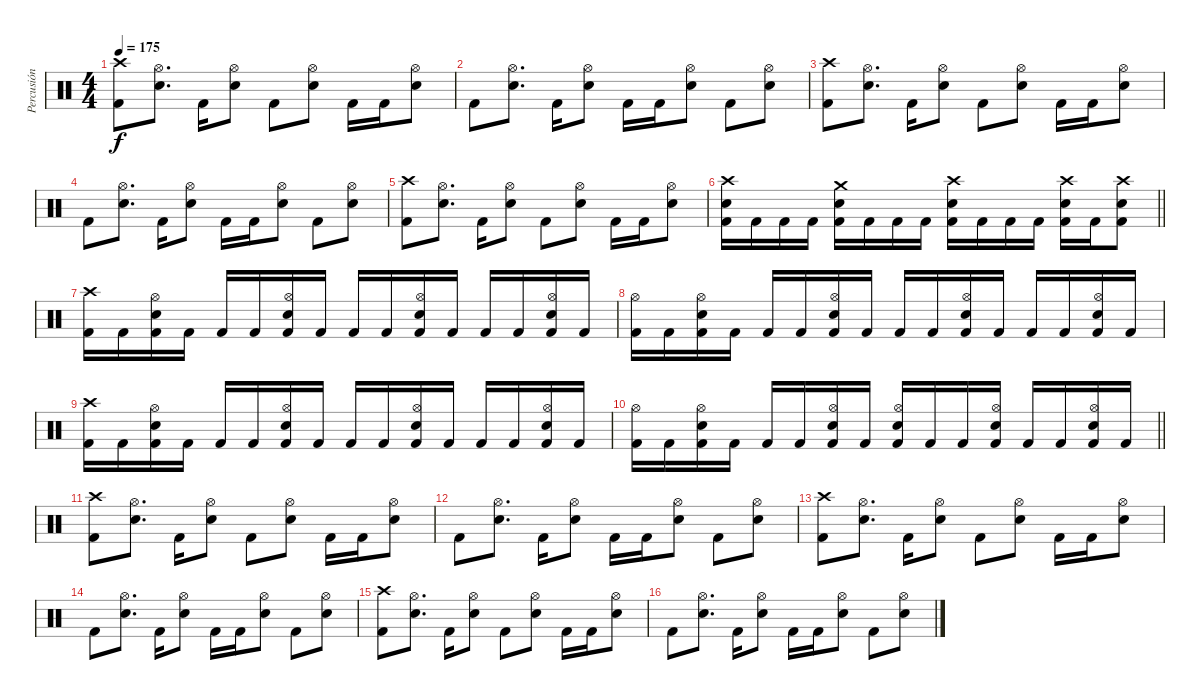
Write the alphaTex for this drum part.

\track ("Percusión" "Percusión") {instrument percussion}
\staff {score}
\articulation defaults
\ts (4 4)
\tempo 175
\clef neutral
\ks c
("Crash high (hit)" "Kick (hit) 2").8{dy f} ("Hi-Hat (open)" "Electric Snare (hit)").8{d} "Kick (hit) 2".16 ("Hi-Hat (open)" "Electric Snare (hit)").8 "Kick (hit) 2".8 ("Hi-Hat (open)" "Electric Snare (hit)").8 "Kick (hit) 2".16 "Kick (hit) 2".16 ("Hi-Hat (open)" "Electric Snare (hit)").8 |
"Kick (hit) 2".8 ("Hi-Hat (open)" "Electric Snare (hit)").8{d} "Kick (hit) 2".16 ("Hi-Hat (open)" "Electric Snare (hit)").8 "Kick (hit) 2".16 "Kick (hit) 2".16 ("Hi-Hat (open)" "Electric Snare (hit)").8 "Kick (hit) 2".8 ("Hi-Hat (open)" "Electric Snare (hit)").8 |
("Crash high (hit)" "Kick (hit) 2").8 ("Hi-Hat (open)" "Electric Snare (hit)").8{d} "Kick (hit) 2".16 ("Hi-Hat (open)" "Electric Snare (hit)").8 "Kick (hit) 2".8 ("Hi-Hat (open)" "Electric Snare (hit)").8 "Kick (hit) 2".16 "Kick (hit) 2".16 ("Hi-Hat (open)" "Electric Snare (hit)").8 |
"Kick (hit) 2".8 ("Hi-Hat (open)" "Electric Snare (hit)").8{d} "Kick (hit) 2".16 ("Hi-Hat (open)" "Electric Snare (hit)").8 "Kick (hit) 2".16 "Kick (hit) 2".16 ("Hi-Hat (open)" "Electric Snare (hit)").8 "Kick (hit) 2".8 ("Hi-Hat (open)" "Electric Snare (hit)").8 |
("Crash high (hit)" "Kick (hit) 2").8 ("Hi-Hat (open)" "Electric Snare (hit)").8{d} "Kick (hit) 2".16 ("Hi-Hat (open)" "Electric Snare (hit)").8 "Kick (hit) 2".8 ("Hi-Hat (open)" "Electric Snare (hit)").8 "Kick (hit) 2".16 "Kick (hit) 2".16 ("Hi-Hat (open)" "Electric Snare (hit)").8 |
\barLineRight lightlight
("Crash high (hit)" "Electric Snare (hit)" "Kick (hit) 2").16 "Kick (hit) 2".16 "Kick (hit) 2".16 "Kick (hit) 2".16 ("Crash medium (hit)" "Electric Snare (hit)" "Kick (hit) 2").16 "Kick (hit) 2".16 "Kick (hit) 2".16 "Kick (hit) 2".16 ("Crash high (hit)" "Electric Snare (hit)" "Kick (hit) 2").16 "Kick (hit) 2".16 "Kick (hit) 2".16 "Kick (hit) 2".16 ("Crash high (hit)" "Electric Snare (hit)" "Kick (hit) 2").16 "Kick (hit) 2".16 ("Crash high (hit)" "Electric Snare (hit)" "Kick (hit) 2").8 |
("Crash high (hit)" "Kick (hit) 2").16 "Kick (hit) 2".16 ("Hi-Hat (open)" "Electric Snare (hit)" "Kick (hit) 2").16 "Kick (hit) 2".16 "Kick (hit) 2".16 "Kick (hit) 2".16 ("Hi-Hat (open)" "Electric Snare (hit)" "Kick (hit) 2").16 "Kick (hit) 2".16 "Kick (hit) 2".16 "Kick (hit) 2".16 ("Hi-Hat (open)" "Electric Snare (hit)" "Kick (hit) 2").16 "Kick (hit) 2".16 "Kick (hit) 2".16 "Kick (hit) 2".16 ("Hi-Hat (open)" "Electric Snare (hit)" "Kick (hit) 2").16 "Kick (hit) 2".16 |
("Hi-Hat (open)" "Kick (hit) 2").16 "Kick (hit) 2".16 ("Hi-Hat (open)" "Electric Snare (hit)" "Kick (hit) 2").16 "Kick (hit) 2".16 "Kick (hit) 2".16 "Kick (hit) 2".16 ("Hi-Hat (open)" "Electric Snare (hit)" "Kick (hit) 2").16 "Kick (hit) 2".16 "Kick (hit) 2".16 "Kick (hit) 2".16 ("Hi-Hat (open)" "Electric Snare (hit)" "Kick (hit) 2").16 "Kick (hit) 2".16 "Kick (hit) 2".16 "Kick (hit) 2".16 ("Hi-Hat (open)" "Electric Snare (hit)" "Kick (hit) 2").16 "Kick (hit) 2".16 |
("Crash high (hit)" "Kick (hit) 2").16 "Kick (hit) 2".16 ("Hi-Hat (open)" "Electric Snare (hit)" "Kick (hit) 2").16 "Kick (hit) 2".16 "Kick (hit) 2".16 "Kick (hit) 2".16 ("Hi-Hat (open)" "Electric Snare (hit)" "Kick (hit) 2").16 "Kick (hit) 2".16 "Kick (hit) 2".16 "Kick (hit) 2".16 ("Hi-Hat (open)" "Electric Snare (hit)" "Kick (hit) 2").16 "Kick (hit) 2".16 "Kick (hit) 2".16 "Kick (hit) 2".16 ("Hi-Hat (open)" "Electric Snare (hit)" "Kick (hit) 2").16 "Kick (hit) 2".16 |
\barLineRight lightlight
("Hi-Hat (open)" "Kick (hit) 2").16 "Kick (hit) 2".16 ("Hi-Hat (open)" "Electric Snare (hit)" "Kick (hit) 2").16 "Kick (hit) 2".16 "Kick (hit) 2".16 "Kick (hit) 2".16 ("Hi-Hat (open)" "Electric Snare (hit)" "Kick (hit) 2").16 "Kick (hit) 2".16 ("Hi-Hat (open)" "Electric Snare (hit)" "Kick (hit) 2").16 "Kick (hit) 2".16 "Kick (hit) 2".16 ("Hi-Hat (open)" "Electric Snare (hit)" "Kick (hit) 2").16 "Kick (hit) 2".16 "Kick (hit) 2".16 ("Hi-Hat (open)" "Electric Snare (hit)" "Kick (hit) 2").16 "Kick (hit) 2".16 |
("Crash high (hit)" "Kick (hit) 2").8 ("Hi-Hat (open)" "Electric Snare (hit)").8{d} "Kick (hit) 2".16 ("Hi-Hat (open)" "Electric Snare (hit)").8 "Kick (hit) 2".8 ("Hi-Hat (open)" "Electric Snare (hit)").8 "Kick (hit) 2".16 "Kick (hit) 2".16 ("Hi-Hat (open)" "Electric Snare (hit)").8 |
"Kick (hit) 2".8 ("Hi-Hat (open)" "Electric Snare (hit)").8{d} "Kick (hit) 2".16 ("Hi-Hat (open)" "Electric Snare (hit)").8 "Kick (hit) 2".16 "Kick (hit) 2".16 ("Hi-Hat (open)" "Electric Snare (hit)").8 "Kick (hit) 2".8 ("Hi-Hat (open)" "Electric Snare (hit)").8 |
("Crash high (hit)" "Kick (hit) 2").8 ("Hi-Hat (open)" "Electric Snare (hit)").8{d} "Kick (hit) 2".16 ("Hi-Hat (open)" "Electric Snare (hit)").8 "Kick (hit) 2".8 ("Hi-Hat (open)" "Electric Snare (hit)").8 "Kick (hit) 2".16 "Kick (hit) 2".16 ("Hi-Hat (open)" "Electric Snare (hit)").8 |
"Kick (hit) 2".8 ("Hi-Hat (open)" "Electric Snare (hit)").8{d} "Kick (hit) 2".16 ("Hi-Hat (open)" "Electric Snare (hit)").8 "Kick (hit) 2".16 "Kick (hit) 2".16 ("Hi-Hat (open)" "Electric Snare (hit)").8 "Kick (hit) 2".8 ("Hi-Hat (open)" "Electric Snare (hit)").8 |
("Crash high (hit)" "Kick (hit) 2").8 ("Hi-Hat (open)" "Electric Snare (hit)").8{d} "Kick (hit) 2".16 ("Hi-Hat (open)" "Electric Snare (hit)").8 "Kick (hit) 2".8 ("Hi-Hat (open)" "Electric Snare (hit)").8 "Kick (hit) 2".16 "Kick (hit) 2".16 ("Hi-Hat (open)" "Electric Snare (hit)").8 |
"Kick (hit) 2".8 ("Hi-Hat (open)" "Electric Snare (hit)").8{d} "Kick (hit) 2".16 ("Hi-Hat (open)" "Electric Snare (hit)").8 "Kick (hit) 2".16 "Kick (hit) 2".16 ("Hi-Hat (open)" "Electric Snare (hit)").8 "Kick (hit) 2".8 ("Hi-Hat (open)" "Electric Snare (hit)").8
